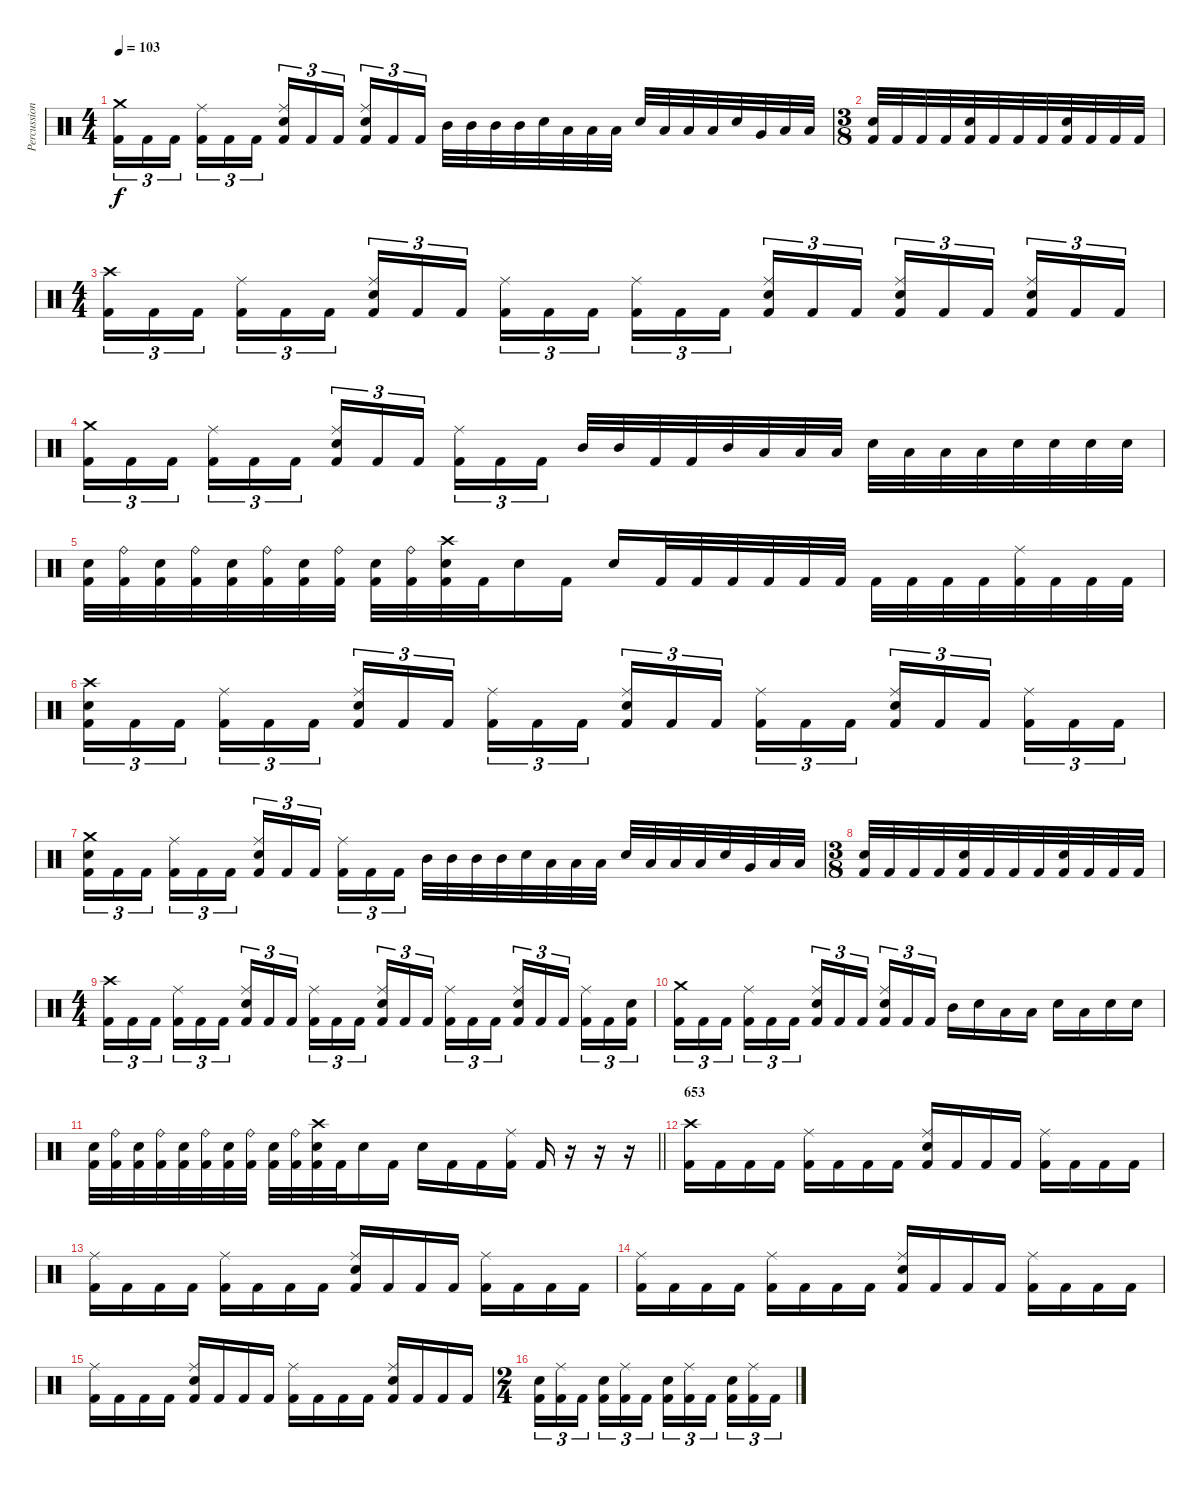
\track ("Percussion" "Percussion") {instrument percussion}
\staff {score}
\articulation defaults
\ts (4 4)
\tempo 103
\clef neutral
\ks c
("Crash medium (hit)" "Kick (hit) 2").16{tu (3 2) dy f} "Kick (hit) 2".16{tu (3 2)} "Kick (hit) 2".16{tu (3 2)} ("Ride (middle)" "Kick (hit) 2").16{tu (3 2)} "Kick (hit) 2".16{tu (3 2)} "Kick (hit) 2".16{tu (3 2)} ("Ride (middle)" "Electric Snare (hit)" "Kick (hit) 2").16{tu (3 2)} "Kick (hit) 2".16{tu (3 2)} "Kick (hit) 2".16{tu (3 2)} ("Ride (middle)" "Electric Snare (hit)" "Kick (hit) 2").16{tu (3 2)} "Kick (hit) 2".16{tu (3 2)} "Kick (hit) 2".16{tu (3 2)} "Mid Tom (hit)".32 "Mid Tom (hit)".32 "Mid Tom (hit)".32 "Mid Tom (hit)".32 "Electric Snare (hit)".32 "Low Tom (hit)".32 "Low Tom (hit)".32 "Low Tom (hit)".32 "Electric Snare (hit)".32 "Low Tom (hit)".32 "Low Tom (hit)".32 "Low Tom (hit)".32 "Electric Snare (hit)".32 "Very Low Tom (hit)".32 "Low Floor Tom (hit)".32 "Low Floor Tom (hit)".32 |
\ts (3 8)
("Electric Snare (hit)" "Kick (hit) 2").32 "Kick (hit) 2".32 "Kick (hit) 2".32 "Kick (hit) 2".32 ("Electric Snare (hit)" "Kick (hit) 2").32 "Kick (hit) 2".32 "Kick (hit) 2".32 "Kick (hit) 2".32 ("Electric Snare (hit)" "Kick (hit) 2").32 "Kick (hit) 2".32 "Kick (hit) 2".32 "Kick (hit) 2".32 |
\ts (4 4)
("Crash high (hit)" "Kick (hit) 2").16{tu (3 2)} "Kick (hit) 2".16{tu (3 2)} "Kick (hit) 2".16{tu (3 2)} ("Ride (middle)" "Kick (hit) 2").16{tu (3 2)} "Kick (hit) 2".16{tu (3 2)} "Kick (hit) 2".16{tu (3 2)} ("Ride (middle)" "Electric Snare (hit)" "Kick (hit) 2").16{tu (3 2)} "Kick (hit) 2".16{tu (3 2)} "Kick (hit) 2".16{tu (3 2)} ("Ride (middle)" "Kick (hit) 2").16{tu (3 2)} "Kick (hit) 2".16{tu (3 2)} "Kick (hit) 2".16{tu (3 2)} ("Ride (middle)" "Kick (hit) 2").16{tu (3 2)} "Kick (hit) 2".16{tu (3 2)} "Kick (hit) 2".16{tu (3 2)} ("Ride (middle)" "Electric Snare (hit)" "Kick (hit) 2").16{tu (3 2)} "Kick (hit) 2".16{tu (3 2)} "Kick (hit) 2".16{tu (3 2)} ("Ride (middle)" "Electric Snare (hit)" "Kick (hit) 2").16{tu (3 2)} "Kick (hit) 2".16{tu (3 2)} "Kick (hit) 2".16{tu (3 2)} ("Ride (middle)" "Electric Snare (hit)" "Kick (hit) 2").16{tu (3 2)} "Kick (hit) 2".16{tu (3 2)} "Kick (hit) 2".16{tu (3 2)} |
("Crash medium (hit)" "Kick (hit) 2").16{tu (3 2)} "Kick (hit) 2".16{tu (3 2)} "Kick (hit) 2".16{tu (3 2)} ("Ride (middle)" "Kick (hit) 2").16{tu (3 2)} "Kick (hit) 2".16{tu (3 2)} "Kick (hit) 2".16{tu (3 2)} ("Ride (middle)" "Electric Snare (hit)" "Kick (hit) 2").16{tu (3 2)} "Kick (hit) 2".16{tu (3 2)} "Kick (hit) 2".16{tu (3 2)} ("Ride (middle)" "Kick (hit) 2").16{tu (3 2)} "Kick (hit) 2".16{tu (3 2)} "Kick (hit) 2".16{tu (3 2)} "Mid Tom (hit)".32 "Mid Tom (hit)".32 "Kick (hit) 2".32 "Kick (hit) 2".32 "Mid Tom (hit)".32 "Low Tom (hit)".32 "Low Tom (hit)".32 "Low Tom (hit)".32 "Electric Snare (hit)".32 "Low Tom (hit)".32 "Low Tom (hit)".32 "Low Tom (hit)".32 "Electric Snare (hit)".32 "Electric Snare (hit)".32 "Electric Snare (hit)".32 "Electric Snare (hit)".32 |
("Electric Snare (hit)" "Kick (hit) 2").32 ("Ride (bell)" "Kick (hit) 2").32 ("Electric Snare (hit)" "Kick (hit) 2").32 ("Ride (bell)" "Kick (hit) 2").32 ("Electric Snare (hit)" "Kick (hit) 2").32 ("Ride (bell)" "Kick (hit) 2").32 ("Electric Snare (hit)" "Kick (hit) 2").32 ("Ride (bell)" "Kick (hit) 2").32 ("Electric Snare (hit)" "Kick (hit) 2").32 ("Ride (bell)" "Kick (hit) 2").32 ("Crash high (hit)" "Electric Snare (hit)" "Kick (hit) 2").32 "Kick (hit) 2".32 "Electric Snare (hit)".16 "Kick (hit) 2".16 "Electric Snare (hit)".16 "Kick (hit) 2".32 "Kick (hit) 2".32 "Kick (hit) 2".32 "Kick (hit) 2".32 "Kick (hit) 2".32 "Kick (hit) 2".32 "Kick (hit) 2".32 "Kick (hit) 2".32 "Kick (hit) 2".32 "Kick (hit) 2".32 ("Ride (middle)" "Kick (hit) 2").32 "Kick (hit) 2".32 "Kick (hit) 2".32 "Kick (hit) 2".32 |
("Crash high (hit)" "Electric Snare (hit)" "Kick (hit) 2").16{tu (3 2)} "Kick (hit) 2".16{tu (3 2)} "Kick (hit) 2".16{tu (3 2)} ("Ride (middle)" "Kick (hit) 2").16{tu (3 2)} "Kick (hit) 2".16{tu (3 2)} "Kick (hit) 2".16{tu (3 2)} ("Ride (middle)" "Electric Snare (hit)" "Kick (hit) 2").16{tu (3 2)} "Kick (hit) 2".16{tu (3 2)} "Kick (hit) 2".16{tu (3 2)} ("Ride (middle)" "Kick (hit) 2").16{tu (3 2)} "Kick (hit) 2".16{tu (3 2)} "Kick (hit) 2".16{tu (3 2)} ("Ride (middle)" "Electric Snare (hit)" "Kick (hit) 2").16{tu (3 2)} "Kick (hit) 2".16{tu (3 2)} "Kick (hit) 2".16{tu (3 2)} ("Ride (middle)" "Kick (hit) 2").16{tu (3 2)} "Kick (hit) 2".16{tu (3 2)} "Kick (hit) 2".16{tu (3 2)} ("Ride (middle)" "Electric Snare (hit)" "Kick (hit) 2").16{tu (3 2)} "Kick (hit) 2".16{tu (3 2)} "Kick (hit) 2".16{tu (3 2)} ("Ride (middle)" "Kick (hit) 2").16{tu (3 2)} "Kick (hit) 2".16{tu (3 2)} "Kick (hit) 2".16{tu (3 2)} |
("Crash medium (hit)" "Electric Snare (hit)" "Kick (hit) 2").16{tu (3 2)} "Kick (hit) 2".16{tu (3 2)} "Kick (hit) 2".16{tu (3 2)} ("Ride (middle)" "Kick (hit) 2").16{tu (3 2)} "Kick (hit) 2".16{tu (3 2)} "Kick (hit) 2".16{tu (3 2)} ("Ride (middle)" "Electric Snare (hit)" "Kick (hit) 2").16{tu (3 2)} "Kick (hit) 2".16{tu (3 2)} "Kick (hit) 2".16{tu (3 2)} ("Ride (middle)" "Kick (hit) 2").16{tu (3 2)} "Kick (hit) 2".16{tu (3 2)} "Kick (hit) 2".16{tu (3 2)} "Mid Tom (hit)".32 "Mid Tom (hit)".32 "Mid Tom (hit)".32 "Mid Tom (hit)".32 "Electric Snare (hit)".32 "Low Tom (hit)".32 "Low Tom (hit)".32 "Low Tom (hit)".32 "Electric Snare (hit)".32 "Low Tom (hit)".32 "Low Tom (hit)".32 "Low Tom (hit)".32 "Electric Snare (hit)".32 "Very Low Tom (hit)".32 "Low Floor Tom (hit)".32 "Low Floor Tom (hit)".32 |
\ts (3 8)
("Electric Snare (hit)" "Kick (hit) 2").32 "Kick (hit) 2".32 "Kick (hit) 2".32 "Kick (hit) 2".32 ("Electric Snare (hit)" "Kick (hit) 2").32 "Kick (hit) 2".32 "Kick (hit) 2".32 "Kick (hit) 2".32 ("Electric Snare (hit)" "Kick (hit) 2").32 "Kick (hit) 2".32 "Kick (hit) 2".32 "Kick (hit) 2".32 |
\ts (4 4)
("Crash high (hit)" "Kick (hit) 2").16{tu (3 2)} "Kick (hit) 2".16{tu (3 2)} "Kick (hit) 2".16{tu (3 2)} ("Ride (middle)" "Kick (hit) 2").16{tu (3 2)} "Kick (hit) 2".16{tu (3 2)} "Kick (hit) 2".16{tu (3 2)} ("Ride (middle)" "Electric Snare (hit)" "Kick (hit) 2").16{tu (3 2)} "Kick (hit) 2".16{tu (3 2)} "Kick (hit) 2".16{tu (3 2)} ("Ride (middle)" "Kick (hit) 2").16{tu (3 2)} "Kick (hit) 2".16{tu (3 2)} "Kick (hit) 2".16{tu (3 2)} ("Ride (middle)" "Electric Snare (hit)" "Kick (hit) 2").16{tu (3 2)} "Kick (hit) 2".16{tu (3 2)} "Kick (hit) 2".16{tu (3 2)} ("Ride (middle)" "Kick (hit) 2").16{tu (3 2)} "Kick (hit) 2".16{tu (3 2)} "Kick (hit) 2".16{tu (3 2)} ("Ride (middle)" "Electric Snare (hit)" "Kick (hit) 2").16{tu (3 2)} "Kick (hit) 2".16{tu (3 2)} "Kick (hit) 2".16{tu (3 2)} ("Ride (middle)" "Kick (hit) 2").16{tu (3 2)} "Kick (hit) 2".16{tu (3 2)} ("Electric Snare (hit)" "Kick (hit) 2").16{tu (3 2)} |
("Crash medium (hit)" "Kick (hit) 2").16{tu (3 2)} "Kick (hit) 2".16{tu (3 2)} "Kick (hit) 2".16{tu (3 2)} ("Ride (middle)" "Kick (hit) 2").16{tu (3 2)} "Kick (hit) 2".16{tu (3 2)} "Kick (hit) 2".16{tu (3 2)} ("Ride (middle)" "Electric Snare (hit)" "Kick (hit) 2").16{tu (3 2)} "Kick (hit) 2".16{tu (3 2)} "Kick (hit) 2".16{tu (3 2)} ("Ride (middle)" "Electric Snare (hit)" "Kick (hit) 2").16{tu (3 2)} "Kick (hit) 2".16{tu (3 2)} "Kick (hit) 2".16{tu (3 2)} "Mid Tom (hit)".16 "Electric Snare (hit)".16 "Low Tom (hit)".16 "Low Tom (hit)".16 "Electric Snare (hit)".16 "Low Tom (hit)".16 "Electric Snare (hit)".16 "Electric Snare (hit)".16 |
\barLineRight lightlight
("Electric Snare (hit)" "Kick (hit) 2").32 ("Ride (bell)" "Kick (hit) 2").32 ("Electric Snare (hit)" "Kick (hit) 2").32 ("Ride (bell)" "Kick (hit) 2").32 ("Electric Snare (hit)" "Kick (hit) 2").32 ("Ride (bell)" "Kick (hit) 2").32 ("Electric Snare (hit)" "Kick (hit) 2").32 ("Ride (bell)" "Kick (hit) 2").32 ("Electric Snare (hit)" "Kick (hit) 2").32 ("Ride (bell)" "Kick (hit) 2").32 ("Crash high (hit)" "Electric Snare (hit)" "Kick (hit) 2").32 "Kick (hit) 2".32 "Electric Snare (hit)".16 "Kick (hit) 2".16 "Electric Snare (hit)".16 "Kick (hit) 2".16 "Kick (hit) 2".16 ("Ride (middle)" "Kick (hit) 2").16 "Kick (hit) 2".16 r.16 r.16 r.16 |
\section ("" "653")
("Crash high (hit)" "Kick (hit) 2").16 "Kick (hit) 2".16 "Kick (hit) 2".16 "Kick (hit) 2".16 ("Ride (middle)" "Kick (hit) 2").16 "Kick (hit) 2".16 "Kick (hit) 2".16 "Kick (hit) 2".16 ("Ride (middle)" "Electric Snare (hit)" "Kick (hit) 2").16 "Kick (hit) 2".16 "Kick (hit) 2".16 "Kick (hit) 2".16 ("Ride (middle)" "Kick (hit) 2").16 "Kick (hit) 2".16 "Kick (hit) 2".16 "Kick (hit) 2".16 |
("Ride (middle)" "Kick (hit) 2").16 "Kick (hit) 2".16 "Kick (hit) 2".16 "Kick (hit) 2".16 ("Ride (middle)" "Kick (hit) 2").16 "Kick (hit) 2".16 "Kick (hit) 2".16 "Kick (hit) 2".16 ("Ride (middle)" "Electric Snare (hit)" "Kick (hit) 2").16 "Kick (hit) 2".16 "Kick (hit) 2".16 "Kick (hit) 2".16 ("Ride (middle)" "Kick (hit) 2").16 "Kick (hit) 2".16 "Kick (hit) 2".16 "Kick (hit) 2".16 |
("Ride (middle)" "Kick (hit) 2").16 "Kick (hit) 2".16 "Kick (hit) 2".16 "Kick (hit) 2".16 ("Ride (middle)" "Kick (hit) 2").16 "Kick (hit) 2".16 "Kick (hit) 2".16 "Kick (hit) 2".16 ("Ride (middle)" "Electric Snare (hit)" "Kick (hit) 2").16 "Kick (hit) 2".16 "Kick (hit) 2".16 "Kick (hit) 2".16 ("Ride (middle)" "Kick (hit) 2").16 "Kick (hit) 2".16 "Kick (hit) 2".16 "Kick (hit) 2".16 |
("Ride (middle)" "Kick (hit) 2").16 "Kick (hit) 2".16 "Kick (hit) 2".16 "Kick (hit) 2".16 ("Ride (middle)" "Electric Snare (hit)" "Kick (hit) 2").16 "Kick (hit) 2".16 "Kick (hit) 2".16 "Kick (hit) 2".16 ("Ride (middle)" "Kick (hit) 2").16 "Kick (hit) 2".16 "Kick (hit) 2".16 "Kick (hit) 2".16 ("Ride (middle)" "Electric Snare (hit)" "Kick (hit) 2").16 "Kick (hit) 2".16 "Kick (hit) 2".16 "Kick (hit) 2".16 |
\ts (2 4)
("Electric Snare (hit)" "Kick (hit) 2").16{tu (3 2)} ("Ride (middle)" "Kick (hit) 2").16{tu (3 2)} "Kick (hit) 2".16{tu (3 2)} ("Electric Snare (hit)" "Kick (hit) 2").16{tu (3 2)} ("Ride (middle)" "Kick (hit) 2").16{tu (3 2)} "Kick (hit) 2".16{tu (3 2)} ("Electric Snare (hit)" "Kick (hit) 2").16{tu (3 2)} ("Ride (middle)" "Kick (hit) 2").16{tu (3 2)} "Kick (hit) 2".16{tu (3 2)} ("Electric Snare (hit)" "Kick (hit) 2").16{tu (3 2)} ("Ride (middle)" "Kick (hit) 2").16{tu (3 2)} "Kick (hit) 2".16{tu (3 2)}
